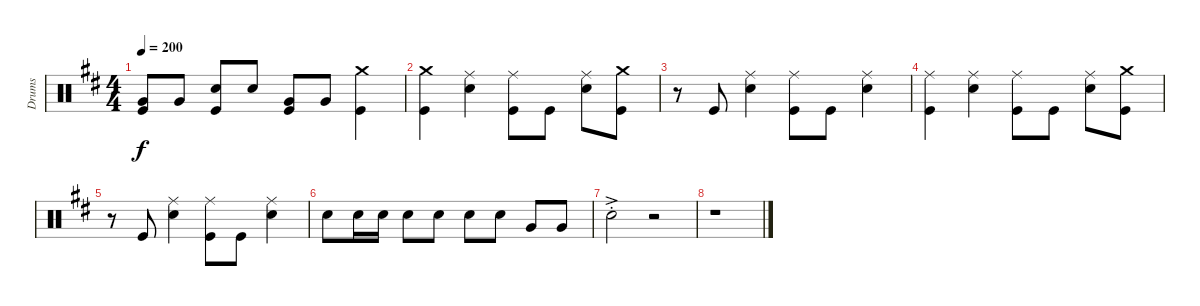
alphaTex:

\track ("Drums" "Drums") {instrument percussion}
\staff {score}
\articulation defaults
\ts (4 4)
\tempo 200
\clef neutral
\ks d
("Kick (hit)" "Very Low Tom (hit)").8{dy f} "Very Low Tom (hit)".8 ("Kick (hit)" "Snare (hit) 2").8 "Snare (hit) 2".8 ("Kick (hit)" "Very Low Tom (hit)").8 "Very Low Tom (hit)".8 ("Kick (hit)" "Crash medium (hit)").4 |
("Kick (hit)" "Crash medium (hit)").4 ("Snare (hit) 2" "Ride (middle)").4 ("Kick (hit)" "Ride (middle)").8 "Kick (hit)".8 ("Snare (hit) 2" "Ride (middle)").8 ("Kick (hit)" "Crash medium (hit)").8 |
r.8 "Kick (hit)".8 ("Snare (hit) 2" "Ride (middle)").4 ("Kick (hit)" "Ride (middle)").8 "Kick (hit)".8 ("Snare (hit) 2" "Ride (middle)").4 |
("Kick (hit)" "Ride (middle)").4 ("Snare (hit) 2" "Ride (middle)").4 ("Kick (hit)" "Ride (middle)").8 "Kick (hit)".8 ("Snare (hit) 2" "Ride (middle)").8 ("Kick (hit)" "Crash medium (hit)").8 |
r.8 "Kick (hit)".8 ("Snare (hit) 2" "Ride (middle)").4 ("Kick (hit)" "Ride (middle)").8 "Kick (hit)".8 ("Snare (hit) 2" "Ride (middle)").4 |
"Snare (hit) 2".8 "Snare (hit) 2".16 "Snare (hit) 2".16 "Snare (hit) 2".8 "Snare (hit) 2".8 "Snare (hit) 2".8 "Snare (hit) 2".8 "Very Low Tom (hit)".8 "Very Low Tom (hit)".8 |
"Snare (hit) 2"{ac st}.2 r.2 |
r.1
